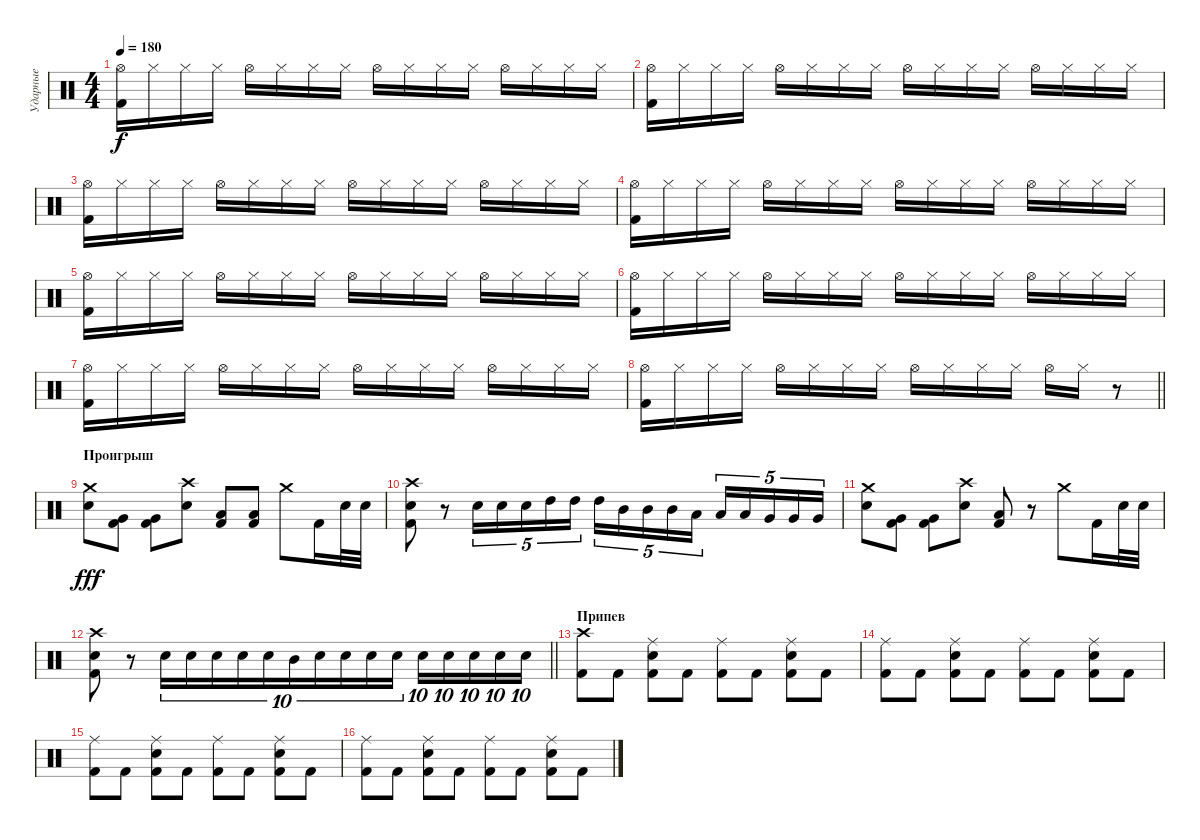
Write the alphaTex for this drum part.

\track ("Ударные" "Ударные") {instrument percussion}
\staff {score}
\articulation defaults
\ts (4 4)
\section ("" "")
\tempo 180
\clef neutral
\ks c
("Hi-Hat (open)" "Kick (hit) 2").16{dy f} "Hi-Hat (closed)".16 "Hi-Hat (closed)".16 "Hi-Hat (closed)".16 "Hi-Hat (open)".16 "Hi-Hat (closed)".16 "Hi-Hat (closed)".16 "Hi-Hat (closed)".16 "Hi-Hat (open)".16 "Hi-Hat (closed)".16 "Hi-Hat (closed)".16 "Hi-Hat (closed)".16 "Hi-Hat (open)".16 "Hi-Hat (closed)".16 "Hi-Hat (closed)".16 "Hi-Hat (closed)".16 |
("Hi-Hat (open)" "Kick (hit) 2").16 "Hi-Hat (closed)".16 "Hi-Hat (closed)".16 "Hi-Hat (closed)".16 "Hi-Hat (open)".16 "Hi-Hat (closed)".16 "Hi-Hat (closed)".16 "Hi-Hat (closed)".16 "Hi-Hat (open)".16 "Hi-Hat (closed)".16 "Hi-Hat (closed)".16 "Hi-Hat (closed)".16 "Hi-Hat (open)".16 "Hi-Hat (closed)".16 "Hi-Hat (closed)".16 "Hi-Hat (closed)".16 |
("Hi-Hat (open)" "Kick (hit) 2").16 "Hi-Hat (closed)".16 "Hi-Hat (closed)".16 "Hi-Hat (closed)".16 "Hi-Hat (open)".16 "Hi-Hat (closed)".16 "Hi-Hat (closed)".16 "Hi-Hat (closed)".16 "Hi-Hat (open)".16 "Hi-Hat (closed)".16 "Hi-Hat (closed)".16 "Hi-Hat (closed)".16 "Hi-Hat (open)".16 "Hi-Hat (closed)".16 "Hi-Hat (closed)".16 "Hi-Hat (closed)".16 |
("Hi-Hat (open)" "Kick (hit) 2").16 "Hi-Hat (closed)".16 "Hi-Hat (closed)".16 "Hi-Hat (closed)".16 "Hi-Hat (open)".16 "Hi-Hat (closed)".16 "Hi-Hat (closed)".16 "Hi-Hat (closed)".16 "Hi-Hat (open)".16 "Hi-Hat (closed)".16 "Hi-Hat (closed)".16 "Hi-Hat (closed)".16 "Hi-Hat (open)".16 "Hi-Hat (closed)".16 "Hi-Hat (closed)".16 "Hi-Hat (closed)".16 |
("Hi-Hat (open)" "Kick (hit) 2").16 "Hi-Hat (closed)".16 "Hi-Hat (closed)".16 "Hi-Hat (closed)".16 "Hi-Hat (open)".16 "Hi-Hat (closed)".16 "Hi-Hat (closed)".16 "Hi-Hat (closed)".16 "Hi-Hat (open)".16 "Hi-Hat (closed)".16 "Hi-Hat (closed)".16 "Hi-Hat (closed)".16 "Hi-Hat (open)".16 "Hi-Hat (closed)".16 "Hi-Hat (closed)".16 "Hi-Hat (closed)".16 |
("Hi-Hat (open)" "Kick (hit) 2").16 "Hi-Hat (closed)".16 "Hi-Hat (closed)".16 "Hi-Hat (closed)".16 "Hi-Hat (open)".16 "Hi-Hat (closed)".16 "Hi-Hat (closed)".16 "Hi-Hat (closed)".16 "Hi-Hat (open)".16 "Hi-Hat (closed)".16 "Hi-Hat (closed)".16 "Hi-Hat (closed)".16 "Hi-Hat (open)".16 "Hi-Hat (closed)".16 "Hi-Hat (closed)".16 "Hi-Hat (closed)".16 |
("Hi-Hat (open)" "Kick (hit) 2").16 "Hi-Hat (closed)".16 "Hi-Hat (closed)".16 "Hi-Hat (closed)".16 "Hi-Hat (open)".16 "Hi-Hat (closed)".16 "Hi-Hat (closed)".16 "Hi-Hat (closed)".16 "Hi-Hat (open)".16 "Hi-Hat (closed)".16 "Hi-Hat (closed)".16 "Hi-Hat (closed)".16 "Hi-Hat (open)".16 "Hi-Hat (closed)".16 "Hi-Hat (closed)".16 "Hi-Hat (closed)".16 |
\barLineRight lightlight
("Hi-Hat (open)" "Kick (hit) 2").16 "Hi-Hat (closed)".16 "Hi-Hat (closed)".16 "Hi-Hat (closed)".16 "Hi-Hat (open)".16 "Hi-Hat (closed)".16 "Hi-Hat (closed)".16 "Hi-Hat (closed)".16 "Hi-Hat (open)".16 "Hi-Hat (closed)".16 "Hi-Hat (closed)".16 "Hi-Hat (closed)".16 "Hi-Hat (open)".16 "Hi-Hat (closed)".16 r.8 |
\section ("" "Проигрыш")
("Crash medium (hit)" "Snare (hit) 2").8{dy fff} ("Very Low Tom (hit)" "Kick (hit) 2").8 ("Very Low Tom (hit)" "Kick (hit) 2").8 ("Crash high (hit)" "Snare (hit) 2").8 ("Low Floor Tom (hit)" "Kick (hit) 2").8 ("Low Floor Tom (hit)" "Kick (hit) 2").8 "Crash medium (hit)".8 "Kick (hit) 2".16 "Snare (hit) 2".32 "Snare (hit) 2".32 |
("Crash high (hit)" "Snare (hit) 2" "Kick (hit) 2").8 r.8 "Snare (hit) 2".16{tu (5 4)} "Snare (hit) 2".16{tu (5 4)} "Snare (hit) 2".16{tu (5 4)} "High Tom (hit)".16{tu (5 4)} "High Tom (hit)".16{tu (5 4)} "High Tom (hit)".16{tu (5 4)} "Mid Tom (hit)".16{tu (5 4)} "Mid Tom (hit)".16{tu (5 4)} "Mid Tom (hit)".16{tu (5 4)} "Low Tom (hit)".16{tu (5 4)} "Low Tom (hit)".16{tu (5 4)} "Low Tom (hit)".16{tu (5 4)} "Very Low Tom (hit)".16{tu (5 4)} "Very Low Tom (hit)".16{tu (5 4)} "Very Low Tom (hit)".16{tu (5 4)} |
("Crash medium (hit)" "Snare (hit) 2").8 ("Very Low Tom (hit)" "Kick (hit) 2").8 ("Very Low Tom (hit)" "Kick (hit) 2").8 ("Crash high (hit)" "Snare (hit) 2").8 ("Low Floor Tom (hit)" "Kick (hit) 2").8 r.8 "Crash medium (hit)".8 "Kick (hit) 2".16 "Snare (hit) 2".32 "Snare (hit) 2".32 |
\barLineRight lightlight
("Crash high (hit)" "Snare (hit) 2" "Kick (hit) 2").8 r.8 "Snare (hit) 2".16{tu (10 8)} "Snare (hit) 2".16{tu (10 8)} "Snare (hit) 2".16{tu (10 8)} "Snare (hit) 2".16{tu (10 8)} "Snare (hit) 2".16{tu (10 8)} "Mid Tom (hit)".16{tu (10 8)} "Snare (hit) 2".16{tu (10 8)} "Snare (hit) 2".16{tu (10 8)} "Snare (hit) 2".16{tu (10 8)} "Snare (hit) 2".16{tu (10 8)} "Snare (hit) 2".16{tu (10 8)} "Snare (hit) 2".16{tu (10 8)} "Snare (hit) 2".16{tu (10 8)} "Snare (hit) 2".16{tu (10 8)} "Snare (hit) 2".16{tu (10 8)} |
\section ("" "Припев")
("Crash high (hit)" "Kick (hit) 2").8 "Kick (hit) 2".8 ("Ride (middle)" "Snare (hit) 2" "Kick (hit) 2").8 "Kick (hit) 2".8 ("Ride (middle)" "Kick (hit) 2").8 "Kick (hit) 2".8 ("Ride (middle)" "Snare (hit) 2" "Kick (hit) 2").8 "Kick (hit) 2".8 |
("Ride (middle)" "Kick (hit) 2").8 "Kick (hit) 2".8 ("Ride (middle)" "Snare (hit) 2" "Kick (hit) 2").8 "Kick (hit) 2".8 ("Ride (middle)" "Kick (hit) 2").8 "Kick (hit) 2".8 ("Ride (middle)" "Snare (hit) 2" "Kick (hit) 2").8 "Kick (hit) 2".8 |
("Ride (middle)" "Kick (hit) 2").8 "Kick (hit) 2".8 ("Ride (middle)" "Snare (hit) 2" "Kick (hit) 2").8 "Kick (hit) 2".8 ("Ride (middle)" "Kick (hit) 2").8 "Kick (hit) 2".8 ("Ride (middle)" "Snare (hit) 2" "Kick (hit) 2").8 "Kick (hit) 2".8 |
("Ride (middle)" "Kick (hit) 2").8 "Kick (hit) 2".8 ("Ride (middle)" "Snare (hit) 2" "Kick (hit) 2").8 "Kick (hit) 2".8 ("Ride (middle)" "Kick (hit) 2").8 "Kick (hit) 2".8 ("Ride (middle)" "Snare (hit) 2" "Kick (hit) 2").8 "Kick (hit) 2".8
